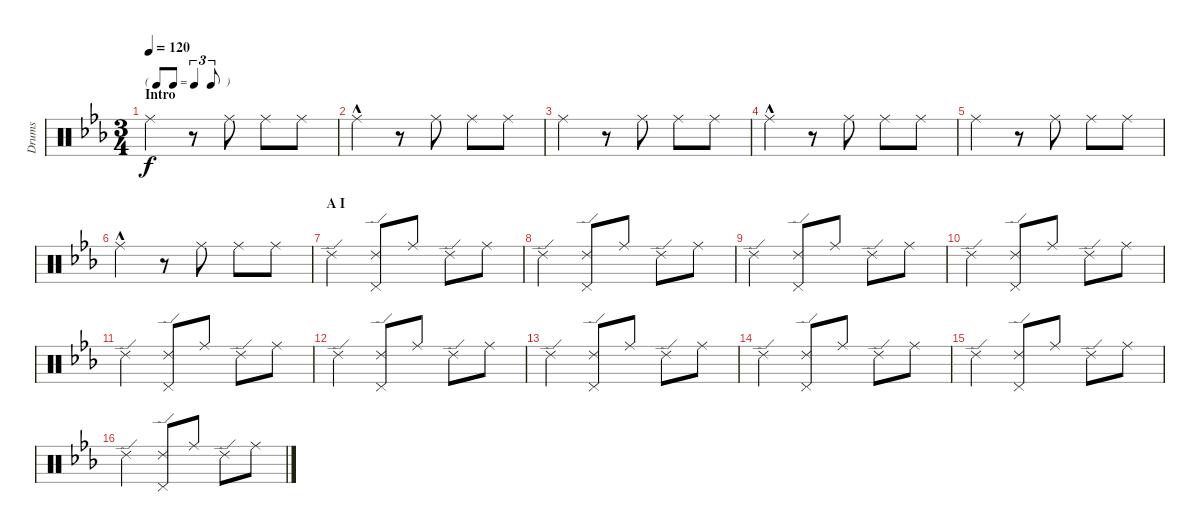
\track ("Drums" "Drums") {instrument percussion}
\staff {score}
\articulation defaults
\ts (3 4)
\tf triplet8th
\section ("" "Intro")
\tempo 120
\clef neutral
\ks cminor "Ride (middle)".4{dy f}
r.8 "Ride (middle)".8 "Ride (middle)".8 "Ride (middle)".8 |
"Ride (middle)"{hac}.4 r.8 "Ride (middle)".8 "Ride (middle)".8 "Ride (middle)".8 |
"Ride (middle)".4 r.8 "Ride (middle)".8 "Ride (middle)".8 "Ride (middle)".8 |
"Ride (middle)"{hac}.4 r.8 "Ride (middle)".8 "Ride (middle)".8 "Ride (middle)".8 |
"Ride (middle)".4 r.8 "Ride (middle)".8 "Ride (middle)".8 "Ride (middle)".8 |
"Ride (middle)"{hac}.4 r.8 "Ride (middle)".8 "Ride (middle)".8 "Ride (middle)".8 |
\section ("" "A I")
"Ride (edge) 2".4 ("Ride (edge) 2" "Pedal Hi-Hat (hit)").8 "Ride (middle)".8 "Ride (edge) 2".8 "Ride (middle)".8 |
"Ride (edge) 2".4 ("Ride (edge) 2" "Pedal Hi-Hat (hit)").8 "Ride (middle)".8 "Ride (edge) 2".8 "Ride (middle)".8 |
"Ride (edge) 2".4 ("Ride (edge) 2" "Pedal Hi-Hat (hit)").8 "Ride (middle)".8 "Ride (edge) 2".8 "Ride (middle)".8 |
"Ride (edge) 2".4 ("Ride (edge) 2" "Pedal Hi-Hat (hit)").8 "Ride (middle)".8 "Ride (edge) 2".8 "Ride (middle)".8 |
"Ride (edge) 2".4 ("Ride (edge) 2" "Pedal Hi-Hat (hit)").8 "Ride (middle)".8 "Ride (edge) 2".8 "Ride (middle)".8 |
"Ride (edge) 2".4 ("Ride (edge) 2" "Pedal Hi-Hat (hit)").8 "Ride (middle)".8 "Ride (edge) 2".8 "Ride (middle)".8 |
"Ride (edge) 2".4 ("Ride (edge) 2" "Pedal Hi-Hat (hit)").8 "Ride (middle)".8 "Ride (edge) 2".8 "Ride (middle)".8 |
"Ride (edge) 2".4 ("Ride (edge) 2" "Pedal Hi-Hat (hit)").8 "Ride (middle)".8 "Ride (edge) 2".8 "Ride (middle)".8 |
"Ride (edge) 2".4 ("Ride (edge) 2" "Pedal Hi-Hat (hit)").8 "Ride (middle)".8 "Ride (edge) 2".8 "Ride (middle)".8 |
"Ride (edge) 2".4 ("Ride (edge) 2" "Pedal Hi-Hat (hit)").8 "Ride (middle)".8 "Ride (edge) 2".8 "Ride (middle)".8
